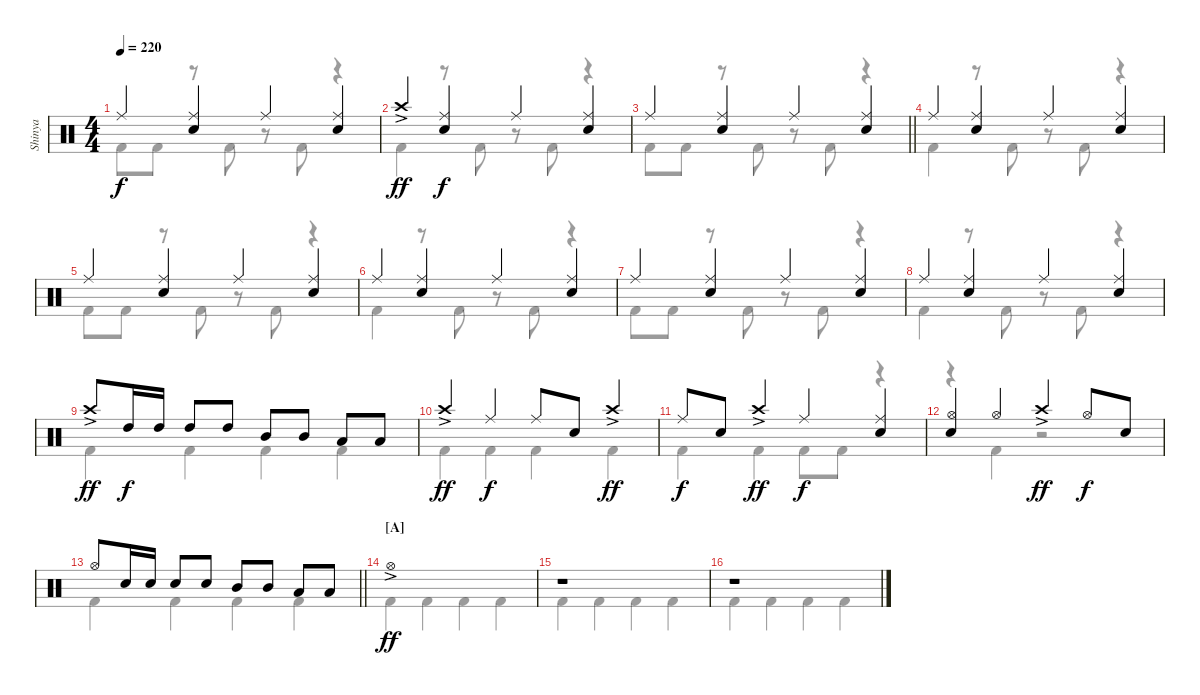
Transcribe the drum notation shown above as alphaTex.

\track ("Shinya" "Shinya") {instrument percussion}
\staff {score}
\articulation defaults
\voice
\ts (4 4)
\tempo 220
\clef neutral
\ks c "Ride (middle)".4{dy f}
("Ride (middle)" "Snare (hit) 2").4 "Ride (middle)".4 ("Ride (middle)" "Snare (hit) 2").4 |
"Crash high (hit)"{ac}.4{dy ff} ("Ride (middle)" "Snare (hit) 2").4{dy f} "Ride (middle)".4 ("Ride (middle)" "Snare (hit) 2").4 |
\barLineRight lightlight "Ride (middle)".4
("Ride (middle)" "Snare (hit) 2").4 "Ride (middle)".4 ("Ride (middle)" "Snare (hit) 2").4 |
"Ride (middle)".4 ("Ride (middle)" "Snare (hit) 2").4 "Ride (middle)".4 ("Ride (middle)" "Snare (hit) 2").4 |
"Ride (middle)".4 ("Ride (middle)" "Snare (hit) 2").4 "Ride (middle)".4 ("Ride (middle)" "Snare (hit) 2").4 |
"Ride (middle)".4 ("Ride (middle)" "Snare (hit) 2").4 "Ride (middle)".4 ("Ride (middle)" "Snare (hit) 2").4 |
"Ride (middle)".4 ("Ride (middle)" "Snare (hit) 2").4 "Ride (middle)".4 ("Ride (middle)" "Snare (hit) 2").4 |
"Ride (middle)".4 ("Ride (middle)" "Snare (hit) 2").4 "Ride (middle)".4 ("Ride (middle)" "Snare (hit) 2").4 |
"Crash high (hit)"{ac}.8{dy ff} "High Tom (hit)".16{dy f} "High Tom (hit)".16 "High Tom (hit)".8 "High Tom (hit)".8 "Mid Tom (hit)".8 "Mid Tom (hit)".8 "Low Tom (hit)".8 "Low Tom (hit)".8 |
"Crash high (hit)"{ac}.4{dy ff} "Ride (middle)".4{dy f} "Ride (middle)".8 "Snare (hit) 2".8 "Crash high (hit)"{ac}.4{dy ff} |
"Ride (middle)".8{dy f} "Snare (hit) 2".8 "Crash high (hit)"{ac}.4{dy ff} "Ride (middle)".4{dy f} ("Ride (middle)" "Snare (hit) 2").4 |
("Hi-Hat (open)" "Snare (hit) 2").4 "Hi-Hat (open)".4 "Crash high (hit)"{ac}.4{dy ff} "Hi-Hat (open)".8{dy f} "Snare (hit) 2".8 |
\barLineRight lightlight "Hi-Hat (open)".8 "Snare (hit) 2".16 "Snare (hit) 2".16 "Snare (hit) 2".8 "Snare (hit) 2".8 "Mid Tom (hit)".8 "Mid Tom (hit)".8 "Low Tom (hit)".8 "Low Tom (hit)".8
|
\section ("" "[A]")
"Hi-Hat (open)"{ac}.1{dy ff} |
r.1 |
r.1
\voice
\clef neutral
\ottava regular
\simile none
\ks c "Kick (hit) 2".8{dy f} "Kick (hit) 2".8
r.8 "Kick (hit) 2".8 r.8 "Kick (hit) 2".8 r.4 |
"Kick (hit) 2".4 r.8 "Kick (hit) 2".8 r.8 "Kick (hit) 2".8 r.4 |
\barLineRight lightlight "Kick (hit) 2".8 "Kick (hit) 2".8
r.8 "Kick (hit) 2".8 r.8 "Kick (hit) 2".8 r.4 |
"Kick (hit) 2".4 r.8 "Kick (hit) 2".8 r.8 "Kick (hit) 2".8 r.4 |
"Kick (hit) 2".8 "Kick (hit) 2".8 r.8 "Kick (hit) 2".8 r.8 "Kick (hit) 2".8 r.4 |
"Kick (hit) 2".4 r.8 "Kick (hit) 2".8 r.8 "Kick (hit) 2".8 r.4 |
"Kick (hit) 2".8 "Kick (hit) 2".8 r.8 "Kick (hit) 2".8 r.8 "Kick (hit) 2".8 r.4 |
"Kick (hit) 2".4 r.8 "Kick (hit) 2".8 r.8 "Kick (hit) 2".8 r.4 |
"Kick (hit) 2".4 "Kick (hit) 2".4 "Kick (hit) 2".4 "Kick (hit) 2".4 |
"Kick (hit) 2".4 "Kick (hit) 2".4 "Kick (hit) 2".4 "Kick (hit) 2".4 |
"Kick (hit) 2".4 "Kick (hit) 2".4 "Kick (hit) 2".8 "Kick (hit) 2".8 r.4 |
r.4 "Kick (hit) 2".4 r.2 |
\barLineRight lightlight "Kick (hit) 2".4 "Kick (hit) 2".4 "Kick (hit) 2".4 "Kick (hit) 2".4
|
"Kick (hit) 2".4 "Kick (hit) 2".4 "Kick (hit) 2".4 "Kick (hit) 2".4 |
"Kick (hit) 2".4 "Kick (hit) 2".4 "Kick (hit) 2".4 "Kick (hit) 2".4 |
"Kick (hit) 2".4 "Kick (hit) 2".4 "Kick (hit) 2".4 "Kick (hit) 2".4
